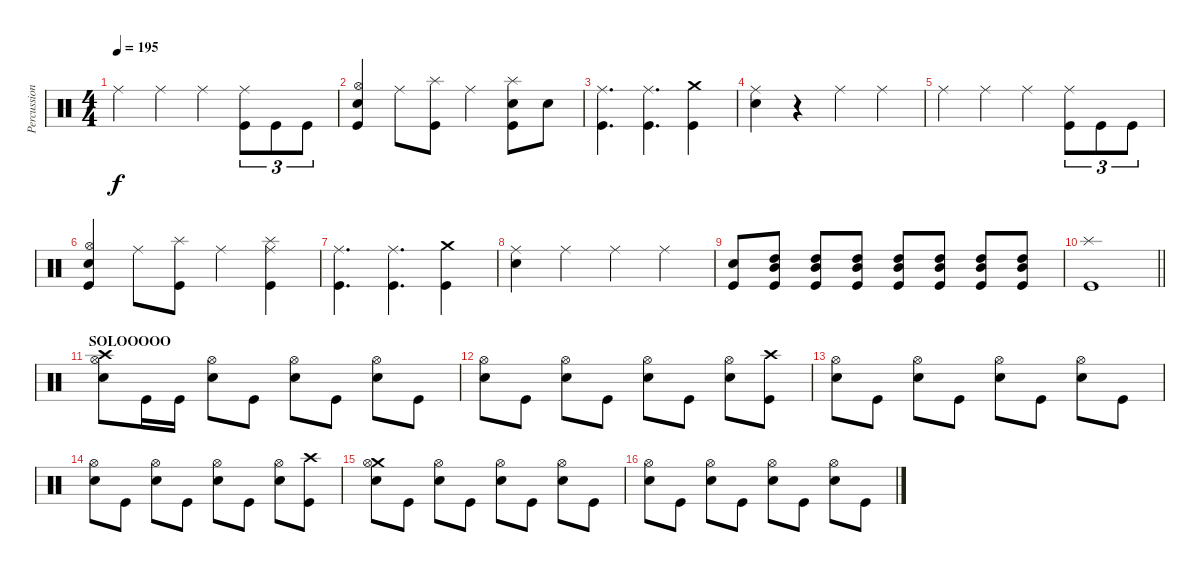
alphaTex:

\track ("Percussion" "Percussion") {instrument percussion}
\staff {score}
\articulation defaults
\ts (4 4)
\tempo 195
\clef neutral
\ks c "Ride (middle)".4{dy f} "Ride (middle)".4 "Ride (middle)".4
("Ride (middle)" "Kick (hit)").8{tu (3 2)} "Kick (hit)".8{tu (3 2)} "Kick (hit)".8{tu (3 2)} |
("Hi-Hat (open)" "Electric Snare (hit)" "Kick (hit)").4 "Ride (middle)".8 ("Splash (hit)" "Kick (hit)").8 "Ride (middle)".4 ("Splash (hit)" "Electric Snare (hit)" "Kick (hit)").8 "Electric Snare (hit)".8 |
("Ride (middle)" "Kick (hit)").4{d} ("Ride (middle)" "Kick (hit)").4{d} ("Crash medium (hit)" "Kick (hit)").4 |
("Ride (middle)" "Electric Snare (hit)").4 r.4 "Ride (middle)".4 "Ride (middle)".4 |
"Ride (middle)".4 "Ride (middle)".4 "Ride (middle)".4 ("Ride (middle)" "Kick (hit)").8{tu (3 2)} "Kick (hit)".8{tu (3 2)} "Kick (hit)".8{tu (3 2)} |
("Hi-Hat (open)" "Electric Snare (hit)" "Kick (hit)").4 "Ride (middle)".8 ("Splash (hit)" "Kick (hit)").8 "Ride (middle)".4 ("Splash (hit)" "Ride (middle)" "Kick (hit)").4 |
("Ride (middle)" "Kick (hit)").4{d} ("Ride (middle)" "Kick (hit)").4{d} ("Crash medium (hit)" "Kick (hit)").4 |
("Ride (middle)" "Electric Snare (hit)").4 "Ride (middle)".4 "Ride (middle)".4 "Ride (middle)".4 |
("Electric Snare (hit)" "Kick (hit)").8 ("Mid Tom (hit)" "High Tom (hit)" "Kick (hit)").8 ("Mid Tom (hit)" "High Tom (hit)" "Kick (hit)").8 ("Mid Tom (hit)" "High Tom (hit)" "Kick (hit)").8 ("Mid Tom (hit)" "High Tom (hit)" "Kick (hit)").8 ("Mid Tom (hit)" "High Tom (hit)" "Kick (hit)").8 ("Mid Tom (hit)" "High Tom (hit)" "Kick (hit)").8 ("Mid Tom (hit)" "High Tom (hit)" "Kick (hit)").8 |
\barLineRight lightlight
("Splash (hit)" "Kick (hit)").1 |
\section ("" "SOLOOOOO")
("Crash high (hit)" "Hi-Hat (open)" "Electric Snare (hit)").8 "Kick (hit)".16 "Kick (hit)".16 ("Hi-Hat (open)" "Electric Snare (hit)").8 "Kick (hit)".8 ("Hi-Hat (open)" "Electric Snare (hit)").8 "Kick (hit)".8 ("Hi-Hat (open)" "Electric Snare (hit)").8 "Kick (hit)".8 |
("Hi-Hat (open)" "Electric Snare (hit)").8 "Kick (hit)".8 ("Hi-Hat (open)" "Electric Snare (hit)").8 "Kick (hit)".8 ("Hi-Hat (open)" "Electric Snare (hit)").8 "Kick (hit)".8 ("Hi-Hat (open)" "Electric Snare (hit)").8 ("Crash high (hit)" "Kick (hit)").8 |
("Hi-Hat (open)" "Electric Snare (hit)").8 "Kick (hit)".8 ("Hi-Hat (open)" "Electric Snare (hit)").8 "Kick (hit)".8 ("Hi-Hat (open)" "Electric Snare (hit)").8 "Kick (hit)".8 ("Hi-Hat (open)" "Electric Snare (hit)").8 "Kick (hit)".8 |
("Hi-Hat (open)" "Electric Snare (hit)").8 "Kick (hit)".8 ("Hi-Hat (open)" "Electric Snare (hit)").8 "Kick (hit)".8 ("Hi-Hat (open)" "Electric Snare (hit)").8 "Kick (hit)".8 ("Hi-Hat (open)" "Electric Snare (hit)").8 ("Crash high (hit)" "Kick (hit)").8 |
("Crash medium (hit)" "Hi-Hat (open)" "Electric Snare (hit)").8 "Kick (hit)".8 ("Hi-Hat (open)" "Electric Snare (hit)").8 "Kick (hit)".8 ("Hi-Hat (open)" "Electric Snare (hit)").8 "Kick (hit)".8 ("Hi-Hat (open)" "Electric Snare (hit)").8 "Kick (hit)".8 |
("Hi-Hat (open)" "Electric Snare (hit)").8 "Kick (hit)".8 ("Hi-Hat (open)" "Electric Snare (hit)").8 "Kick (hit)".8 ("Hi-Hat (open)" "Electric Snare (hit)").8 "Kick (hit)".8 ("Hi-Hat (open)" "Electric Snare (hit)").8 "Kick (hit)".8
